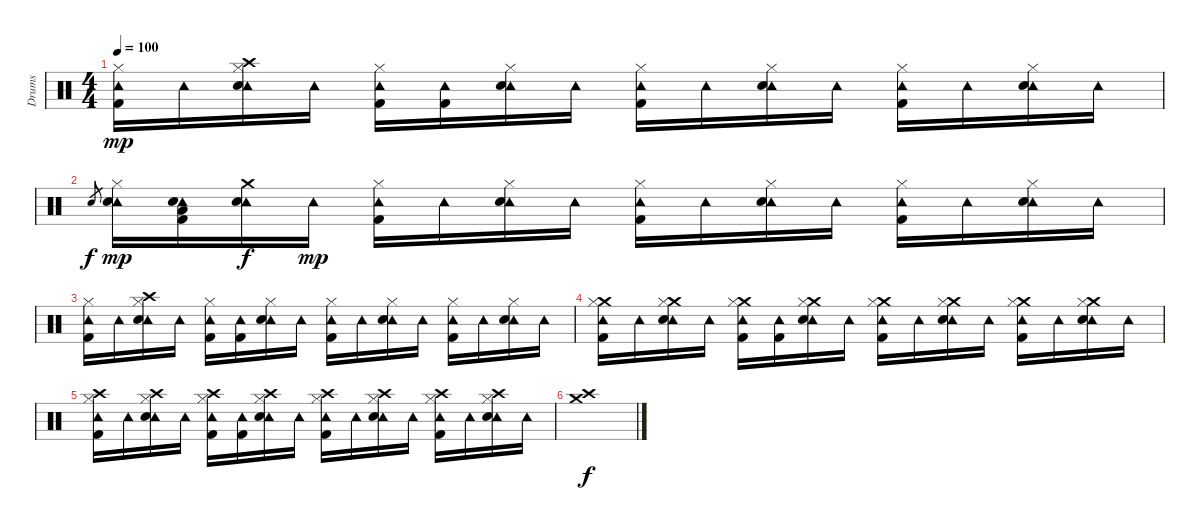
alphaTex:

\track ("Drums" "Drums") {instrument percussion}
\staff {score}
\articulation defaults
\ts (4 4)
\tempo 100
\clef neutral
\ks c
("Hi-Hat (closed)" "Tambourine (hit)" "Kick (hit) 2").16{dy mp} "Tambourine (hit)".16 ("Crash high (hit)" "Hi-Hat (closed)" "Tambourine (hit)" "Electric Snare (hit)").16 "Tambourine (hit)".16 ("Hi-Hat (closed)" "Tambourine (hit)" "Kick (hit) 2").16 ("Tambourine (hit)" "Kick (hit) 2").16 ("Hi-Hat (closed)" "Tambourine (hit)" "Electric Snare (hit)").16 "Tambourine (hit)".16 ("Hi-Hat (closed)" "Tambourine (hit)" "Kick (hit) 2").16 "Tambourine (hit)".16 ("Hi-Hat (closed)" "Tambourine (hit)" "Electric Snare (hit)").16 "Tambourine (hit)".16 ("Hi-Hat (closed)" "Tambourine (hit)" "Kick (hit) 2").16 "Tambourine (hit)".16 ("Hi-Hat (closed)" "Tambourine (hit)" "Electric Snare (hit)").16 "Tambourine (hit)".16 |
"Electric Snare (hit)".8{gr dy f} ("Hi-Hat (closed)" "Tambourine (hit)" "Electric Snare (hit)").16{dy mp} ("Tambourine (hit)" "Electric Snare (hit)" "Low Floor Tom (hit)" "Kick (hit) 2").16 ("Crash medium (hit)" "Tambourine (hit)" "Electric Snare (hit)").16{dy f} "Tambourine (hit)".16{dy mp} ("Hi-Hat (closed)" "Tambourine (hit)" "Kick (hit) 2").16 "Tambourine (hit)".16 ("Hi-Hat (closed)" "Tambourine (hit)" "Electric Snare (hit)").16 "Tambourine (hit)".16 ("Hi-Hat (closed)" "Tambourine (hit)" "Kick (hit) 2").16 "Tambourine (hit)".16 ("Hi-Hat (closed)" "Tambourine (hit)" "Electric Snare (hit)").16 "Tambourine (hit)".16 ("Hi-Hat (closed)" "Tambourine (hit)" "Kick (hit) 2").16 "Tambourine (hit)".16 ("Hi-Hat (closed)" "Tambourine (hit)" "Electric Snare (hit)").16 "Tambourine (hit)".16 |
("Hi-Hat (closed)" "Tambourine (hit)" "Kick (hit) 2").16 "Tambourine (hit)".16 ("Crash high (hit)" "Hi-Hat (closed)" "Tambourine (hit)" "Electric Snare (hit)").16 "Tambourine (hit)".16 ("Hi-Hat (closed)" "Tambourine (hit)" "Kick (hit) 2").16 ("Tambourine (hit)" "Kick (hit) 2").16 ("Hi-Hat (closed)" "Tambourine (hit)" "Electric Snare (hit)").16 "Tambourine (hit)".16 ("Hi-Hat (closed)" "Tambourine (hit)" "Kick (hit) 2").16 "Tambourine (hit)".16 ("Hi-Hat (closed)" "Tambourine (hit)" "Electric Snare (hit)").16 "Tambourine (hit)".16 ("Hi-Hat (closed)" "Tambourine (hit)" "Kick (hit) 2").16 "Tambourine (hit)".16 ("Hi-Hat (closed)" "Tambourine (hit)" "Electric Snare (hit)").16 "Tambourine (hit)".16 |
("Crash medium (hit)" "Hi-Hat (closed)" "Tambourine (hit)" "Kick (hit) 2").16 "Tambourine (hit)".16 ("Crash medium (hit)" "Hi-Hat (closed)" "Tambourine (hit)" "Electric Snare (hit)").16 "Tambourine (hit)".16 ("Crash medium (hit)" "Hi-Hat (closed)" "Tambourine (hit)" "Kick (hit) 2").16 ("Tambourine (hit)" "Kick (hit) 2").16 ("Crash medium (hit)" "Hi-Hat (closed)" "Tambourine (hit)" "Electric Snare (hit)").16 "Tambourine (hit)".16 ("Crash medium (hit)" "Hi-Hat (closed)" "Tambourine (hit)" "Kick (hit) 2").16 "Tambourine (hit)".16 ("Crash medium (hit)" "Hi-Hat (closed)" "Tambourine (hit)" "Electric Snare (hit)").16 "Tambourine (hit)".16 ("Crash medium (hit)" "Hi-Hat (closed)" "Tambourine (hit)" "Kick (hit) 2").16 "Tambourine (hit)".16 ("Crash medium (hit)" "Hi-Hat (closed)" "Tambourine (hit)" "Electric Snare (hit)").16 "Tambourine (hit)".16 |
("Crash high (hit)" "Hi-Hat (closed)" "Tambourine (hit)" "Kick (hit) 2").16 "Tambourine (hit)".16 ("Crash high (hit)" "Hi-Hat (closed)" "Tambourine (hit)" "Electric Snare (hit)").16 "Tambourine (hit)".16 ("Crash high (hit)" "Hi-Hat (closed)" "Tambourine (hit)" "Kick (hit) 2").16 ("Tambourine (hit)" "Kick (hit) 2").16 ("Crash high (hit)" "Hi-Hat (closed)" "Tambourine (hit)" "Electric Snare (hit)").16 "Tambourine (hit)".16 ("Crash high (hit)" "Hi-Hat (closed)" "Tambourine (hit)" "Kick (hit) 2").16 "Tambourine (hit)".16 ("Crash high (hit)" "Hi-Hat (closed)" "Tambourine (hit)" "Electric Snare (hit)").16 "Tambourine (hit)".16 ("Crash high (hit)" "Hi-Hat (closed)" "Tambourine (hit)" "Kick (hit) 2").16 "Tambourine (hit)".16 ("Crash high (hit)" "Hi-Hat (closed)" "Tambourine (hit)" "Electric Snare (hit)").16 "Tambourine (hit)".16 |
("Crash medium (hit)" "Crash high (hit)").1{dy f}
